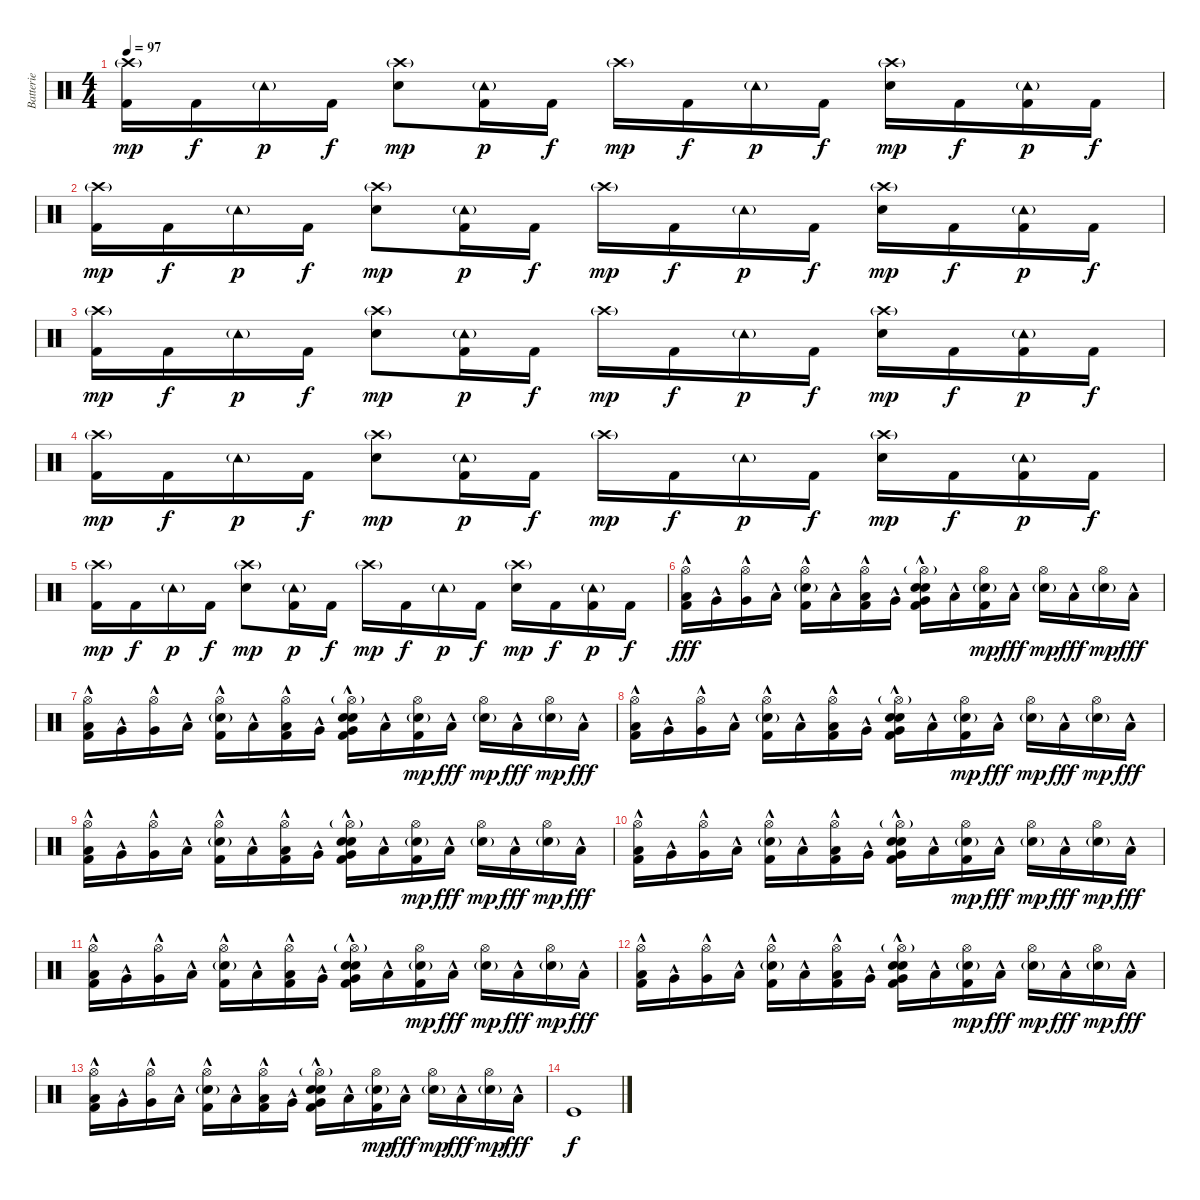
\track ("Batterie" "Batterie") {instrument percussion}
\staff {score}
\articulation defaults
\ts (4 4)
\tempo 97
\clef neutral
\ks c
("Crash high (hit)"{g} "Kick (hit) 2").16{dy mp} "Kick (hit) 2".16{dy f} "Tambourine (hit)"{g}.16{dy p} "Kick (hit) 2".16{dy f} ("Crash high (hit)"{g} "Snare (hit) 2").8{dy mp} ("Tambourine (hit)"{g} "Kick (hit) 2").16{dy p} "Kick (hit) 2".16{dy f} "Crash high (hit)"{g}.16{dy mp} "Kick (hit) 2".16{dy f} "Tambourine (hit)"{g}.16{dy p} "Kick (hit) 2".16{dy f} ("Crash high (hit)"{g} "Snare (hit) 2").16{dy mp} "Kick (hit) 2".16{dy f} ("Tambourine (hit)"{g} "Kick (hit) 2").16{dy p} "Kick (hit) 2".16{dy f} |
("Crash high (hit)"{g} "Kick (hit) 2").16{dy mp} "Kick (hit) 2".16{dy f} "Tambourine (hit)"{g}.16{dy p} "Kick (hit) 2".16{dy f} ("Crash high (hit)"{g} "Snare (hit) 2").8{dy mp} ("Tambourine (hit)"{g} "Kick (hit) 2").16{dy p} "Kick (hit) 2".16{dy f} "Crash high (hit)"{g}.16{dy mp} "Kick (hit) 2".16{dy f} "Tambourine (hit)"{g}.16{dy p} "Kick (hit) 2".16{dy f} ("Crash high (hit)"{g} "Snare (hit) 2").16{dy mp} "Kick (hit) 2".16{dy f} ("Tambourine (hit)"{g} "Kick (hit) 2").16{dy p} "Kick (hit) 2".16{dy f} |
("Crash high (hit)"{g} "Kick (hit) 2").16{dy mp} "Kick (hit) 2".16{dy f} "Tambourine (hit)"{g}.16{dy p} "Kick (hit) 2".16{dy f} ("Crash high (hit)"{g} "Snare (hit) 2").8{dy mp} ("Tambourine (hit)"{g} "Kick (hit) 2").16{dy p} "Kick (hit) 2".16{dy f} "Crash high (hit)"{g}.16{dy mp} "Kick (hit) 2".16{dy f} "Tambourine (hit)"{g}.16{dy p} "Kick (hit) 2".16{dy f} ("Crash high (hit)"{g} "Snare (hit) 2").16{dy mp} "Kick (hit) 2".16{dy f} ("Tambourine (hit)"{g} "Kick (hit) 2").16{dy p} "Kick (hit) 2".16{dy f} |
("Crash high (hit)"{g} "Kick (hit) 2").16{dy mp} "Kick (hit) 2".16{dy f} "Tambourine (hit)"{g}.16{dy p} "Kick (hit) 2".16{dy f} ("Crash high (hit)"{g} "Snare (hit) 2").8{dy mp} ("Tambourine (hit)"{g} "Kick (hit) 2").16{dy p} "Kick (hit) 2".16{dy f} "Crash high (hit)"{g}.16{dy mp} "Kick (hit) 2".16{dy f} "Tambourine (hit)"{g}.16{dy p} "Kick (hit) 2".16{dy f} ("Crash high (hit)"{g} "Snare (hit) 2").16{dy mp} "Kick (hit) 2".16{dy f} ("Tambourine (hit)"{g} "Kick (hit) 2").16{dy p} "Kick (hit) 2".16{dy f} |
("Crash high (hit)"{g} "Kick (hit) 2").16{dy mp} "Kick (hit) 2".16{dy f} "Tambourine (hit)"{g}.16{dy p} "Kick (hit) 2".16{dy f} ("Crash high (hit)"{g} "Snare (hit) 2").8{dy mp} ("Tambourine (hit)"{g} "Kick (hit) 2").16{dy p} "Kick (hit) 2".16{dy f} "Crash high (hit)"{g}.16{dy mp} "Kick (hit) 2".16{dy f} "Tambourine (hit)"{g}.16{dy p} "Kick (hit) 2".16{dy f} ("Crash high (hit)"{g} "Snare (hit) 2").16{dy mp} "Kick (hit) 2".16{dy f} ("Tambourine (hit)"{g} "Kick (hit) 2").16{dy p} "Kick (hit) 2".16{dy f} |
("Hi-Hat (open)" "Low Tom (hit)"{hac} "Kick (hit) 2"{hac}).16{dy fff volume 1} "Very Low Tom (hit)"{hac}.16 ("Hi-Hat (open)" "Very Low Tom (hit)"{hac}).16 "Low Floor Tom (hit)"{hac}.16 ("Hi-Hat (open)" "Snare (hit) 2"{g} "Kick (hit) 2"{hac}).16 "Low Floor Tom (hit)"{hac}.16 ("Hi-Hat (open)" "Low Tom (hit)"{hac} "Kick (hit) 2"{hac}).16 "Very Low Tom (hit)"{hac}.16 ("Hi-Hat (open)"{g} "Very Low Tom (hit)"{hac} "Electric Snare (hit)"{hac} "Snare (hit) 2"{hac} "Kick (hit) 2").16{volume 1} "Low Floor Tom (hit)"{hac}.16{volume 1} ("Hi-Hat (open)" "Snare (hit) 2"{g} "Kick (hit) 2").16{dy mp} "Low Floor Tom (hit)"{hac}.16{dy fff} ("Hi-Hat (open)" "Snare (hit) 2"{g}).16{dy mp} "Low Floor Tom (hit)"{hac}.16{dy fff} ("Hi-Hat (open)" "Snare (hit) 2"{g}).16{dy mp} "Low Floor Tom (hit)"{hac}.16{dy fff} |
("Hi-Hat (open)" "Low Tom (hit)"{hac} "Kick (hit) 2"{hac}).16{volume 1} "Very Low Tom (hit)"{hac}.16 ("Hi-Hat (open)" "Very Low Tom (hit)"{hac}).16 "Low Floor Tom (hit)"{hac}.16 ("Hi-Hat (open)" "Snare (hit) 2"{g} "Kick (hit) 2"{hac}).16 "Low Floor Tom (hit)"{hac}.16 ("Hi-Hat (open)" "Low Tom (hit)"{hac} "Kick (hit) 2"{hac}).16 "Very Low Tom (hit)"{hac}.16 ("Hi-Hat (open)"{g} "Very Low Tom (hit)"{hac} "Electric Snare (hit)"{hac} "Snare (hit) 2"{hac} "Kick (hit) 2").16{volume 1} "Low Floor Tom (hit)"{hac}.16{volume 1} ("Hi-Hat (open)" "Snare (hit) 2"{g} "Kick (hit) 2").16{dy mp} "Low Floor Tom (hit)"{hac}.16{dy fff} ("Hi-Hat (open)" "Snare (hit) 2"{g}).16{dy mp} "Low Floor Tom (hit)"{hac}.16{dy fff} ("Hi-Hat (open)" "Snare (hit) 2"{g}).16{dy mp} "Low Floor Tom (hit)"{hac}.16{dy fff} |
("Hi-Hat (open)" "Low Tom (hit)"{hac} "Kick (hit) 2"{hac}).16{volume 1} "Very Low Tom (hit)"{hac}.16 ("Hi-Hat (open)" "Very Low Tom (hit)"{hac}).16 "Low Floor Tom (hit)"{hac}.16 ("Hi-Hat (open)" "Snare (hit) 2"{g} "Kick (hit) 2"{hac}).16 "Low Floor Tom (hit)"{hac}.16 ("Hi-Hat (open)" "Low Tom (hit)"{hac} "Kick (hit) 2"{hac}).16 "Very Low Tom (hit)"{hac}.16 ("Hi-Hat (open)"{g} "Very Low Tom (hit)"{hac} "Electric Snare (hit)"{hac} "Snare (hit) 2"{hac} "Kick (hit) 2").16{volume 1} "Low Floor Tom (hit)"{hac}.16{volume 1} ("Hi-Hat (open)" "Snare (hit) 2"{g} "Kick (hit) 2").16{dy mp} "Low Floor Tom (hit)"{hac}.16{dy fff} ("Hi-Hat (open)" "Snare (hit) 2"{g}).16{dy mp} "Low Floor Tom (hit)"{hac}.16{dy fff} ("Hi-Hat (open)" "Snare (hit) 2"{g}).16{dy mp} "Low Floor Tom (hit)"{hac}.16{dy fff} |
("Hi-Hat (open)" "Low Tom (hit)"{hac} "Kick (hit) 2"{hac}).16{volume 1} "Very Low Tom (hit)"{hac}.16 ("Hi-Hat (open)" "Very Low Tom (hit)"{hac}).16 "Low Floor Tom (hit)"{hac}.16 ("Hi-Hat (open)" "Snare (hit) 2"{g} "Kick (hit) 2"{hac}).16 "Low Floor Tom (hit)"{hac}.16 ("Hi-Hat (open)" "Low Tom (hit)"{hac} "Kick (hit) 2"{hac}).16 "Very Low Tom (hit)"{hac}.16 ("Hi-Hat (open)"{g} "Very Low Tom (hit)"{hac} "Electric Snare (hit)"{hac} "Snare (hit) 2"{hac} "Kick (hit) 2").16{volume 1} "Low Floor Tom (hit)"{hac}.16{volume 1} ("Hi-Hat (open)" "Snare (hit) 2"{g} "Kick (hit) 2").16{dy mp} "Low Floor Tom (hit)"{hac}.16{dy fff} ("Hi-Hat (open)" "Snare (hit) 2"{g}).16{dy mp} "Low Floor Tom (hit)"{hac}.16{dy fff} ("Hi-Hat (open)" "Snare (hit) 2"{g}).16{dy mp} "Low Floor Tom (hit)"{hac}.16{dy fff} |
("Hi-Hat (open)" "Low Tom (hit)"{hac} "Kick (hit) 2"{hac}).16{volume 1} "Very Low Tom (hit)"{hac}.16 ("Hi-Hat (open)" "Very Low Tom (hit)"{hac}).16 "Low Floor Tom (hit)"{hac}.16 ("Hi-Hat (open)" "Snare (hit) 2"{g} "Kick (hit) 2"{hac}).16 "Low Floor Tom (hit)"{hac}.16 ("Hi-Hat (open)" "Low Tom (hit)"{hac} "Kick (hit) 2"{hac}).16 "Very Low Tom (hit)"{hac}.16 ("Hi-Hat (open)"{g} "Very Low Tom (hit)"{hac} "Electric Snare (hit)"{hac} "Snare (hit) 2"{hac} "Kick (hit) 2").16{volume 1} "Low Floor Tom (hit)"{hac}.16{volume 1} ("Hi-Hat (open)" "Snare (hit) 2"{g} "Kick (hit) 2").16{dy mp} "Low Floor Tom (hit)"{hac}.16{dy fff} ("Hi-Hat (open)" "Snare (hit) 2"{g}).16{dy mp} "Low Floor Tom (hit)"{hac}.16{dy fff} ("Hi-Hat (open)" "Snare (hit) 2"{g}).16{dy mp} "Low Floor Tom (hit)"{hac}.16{dy fff} |
("Hi-Hat (open)" "Low Tom (hit)"{hac} "Kick (hit) 2"{hac}).16{volume 1} "Very Low Tom (hit)"{hac}.16 ("Hi-Hat (open)" "Very Low Tom (hit)"{hac}).16 "Low Floor Tom (hit)"{hac}.16 ("Hi-Hat (open)" "Snare (hit) 2"{g} "Kick (hit) 2"{hac}).16 "Low Floor Tom (hit)"{hac}.16 ("Hi-Hat (open)" "Low Tom (hit)"{hac} "Kick (hit) 2"{hac}).16 "Very Low Tom (hit)"{hac}.16 ("Hi-Hat (open)"{g} "Very Low Tom (hit)"{hac} "Electric Snare (hit)"{hac} "Snare (hit) 2"{hac} "Kick (hit) 2").16{volume 1} "Low Floor Tom (hit)"{hac}.16{volume 1} ("Hi-Hat (open)" "Snare (hit) 2"{g} "Kick (hit) 2").16{dy mp} "Low Floor Tom (hit)"{hac}.16{dy fff} ("Hi-Hat (open)" "Snare (hit) 2"{g}).16{dy mp} "Low Floor Tom (hit)"{hac}.16{dy fff} ("Hi-Hat (open)" "Snare (hit) 2"{g}).16{dy mp} "Low Floor Tom (hit)"{hac}.16{dy fff} |
("Hi-Hat (open)" "Low Tom (hit)"{hac} "Kick (hit) 2"{hac}).16{volume 1} "Very Low Tom (hit)"{hac}.16 ("Hi-Hat (open)" "Very Low Tom (hit)"{hac}).16 "Low Floor Tom (hit)"{hac}.16 ("Hi-Hat (open)" "Snare (hit) 2"{g} "Kick (hit) 2"{hac}).16 "Low Floor Tom (hit)"{hac}.16 ("Hi-Hat (open)" "Low Tom (hit)"{hac} "Kick (hit) 2"{hac}).16 "Very Low Tom (hit)"{hac}.16 ("Hi-Hat (open)"{g} "Very Low Tom (hit)"{hac} "Electric Snare (hit)"{hac} "Snare (hit) 2"{hac} "Kick (hit) 2").16{volume 1} "Low Floor Tom (hit)"{hac}.16{volume 1} ("Hi-Hat (open)" "Snare (hit) 2"{g} "Kick (hit) 2").16{dy mp} "Low Floor Tom (hit)"{hac}.16{dy fff} ("Hi-Hat (open)" "Snare (hit) 2"{g}).16{dy mp} "Low Floor Tom (hit)"{hac}.16{dy fff} ("Hi-Hat (open)" "Snare (hit) 2"{g}).16{dy mp} "Low Floor Tom (hit)"{hac}.16{dy fff} |
("Hi-Hat (open)" "Low Tom (hit)"{hac} "Kick (hit) 2"{hac}).16{volume 1} "Very Low Tom (hit)"{hac}.16 ("Hi-Hat (open)" "Very Low Tom (hit)"{hac}).16 "Low Floor Tom (hit)"{hac}.16 ("Hi-Hat (open)" "Snare (hit) 2"{g} "Kick (hit) 2"{hac}).16 "Low Floor Tom (hit)"{hac}.16 ("Hi-Hat (open)" "Low Tom (hit)"{hac} "Kick (hit) 2"{hac}).16 "Very Low Tom (hit)"{hac}.16 ("Hi-Hat (open)"{g} "Very Low Tom (hit)"{hac} "Electric Snare (hit)"{hac} "Snare (hit) 2"{hac} "Kick (hit) 2").16{volume 1} "Low Floor Tom (hit)"{hac}.16{volume 1} ("Hi-Hat (open)" "Snare (hit) 2"{g} "Kick (hit) 2").16{dy mp} "Low Floor Tom (hit)"{hac}.16{dy fff} ("Hi-Hat (open)" "Snare (hit) 2"{g}).16{dy mp} "Low Floor Tom (hit)"{hac}.16{dy fff} ("Hi-Hat (open)" "Snare (hit) 2"{g}).16{dy mp} "Low Floor Tom (hit)"{hac}.16{dy fff} |
"Kick (hit)".1{dy f volume 7}
